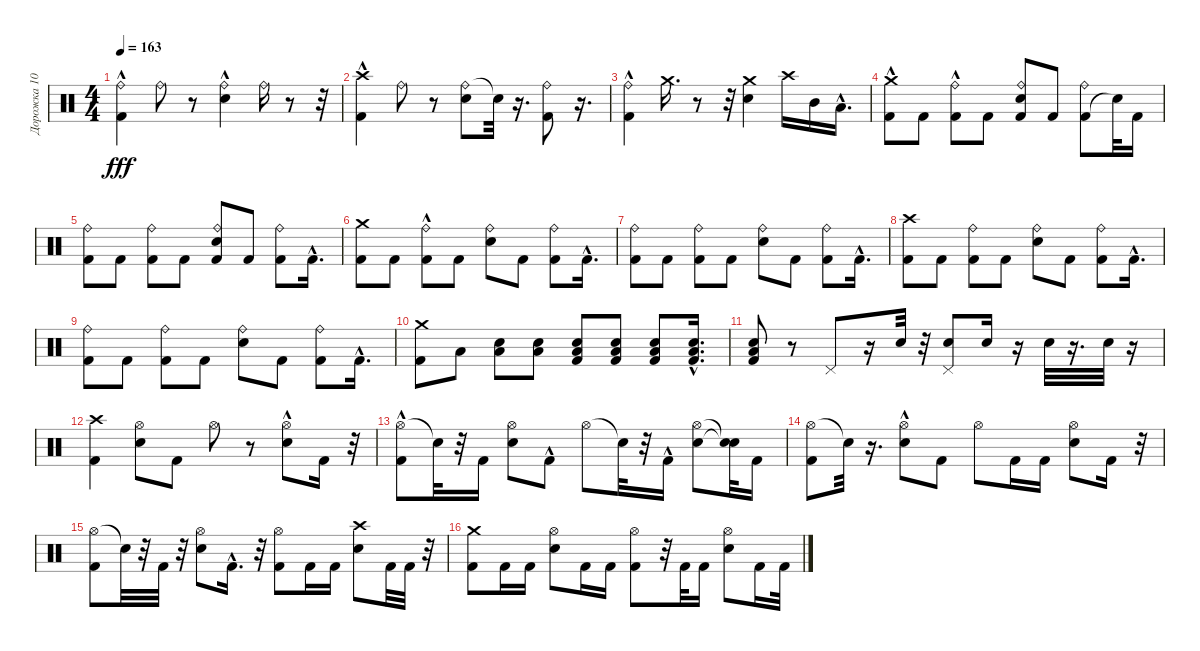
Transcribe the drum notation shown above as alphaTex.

\track ("Дорожка 10" "Дорожка 10") {instrument percussion}
\staff {score}
\articulation defaults
\ts (4 4)
\tempo 163
\clef neutral
\ks c
("Kick (hit) 2"{hac} "Ride (bell)").4{dy fff} "Ride (bell)".8 r.8 ("Ride (bell)" "Electric Snare (hit)"{hac}).4 "Ride (bell)".16 r.8 r.32 |
("Crash high (hit)"{hac} "Kick (hit) 2").4 "Ride (bell)".8 r.8 ("Ride (bell)" "Electric Snare (hit)").8 "Snare (hit)"{t}.32 r.16{d} ("Ride (bell)" "Kick (hit) 2").8 r.16{d} |
("Kick (hit) 2"{hac} "Ride (bell)").4 "Crash medium (hit)".16{d} r.8 r.32 ("Crash medium (hit)" "Electric Snare (hit)").4 "Crash high (hit)".16 "Mid Tom (hit)".16 "Low Tom (hit)"{hac}.16{d} |
("Kick (hit) 2" "Crash medium (hit)"{hac}).8 "Kick (hit) 2".8 ("Kick (hit) 2" "Ride (bell)"{hac}).8 "Kick (hit) 2".8 ("Kick (hit) 2" "Electric Snare (hit)" "Ride (bell)").8 "Kick (hit) 2".8 ("Kick (hit) 2" "Ride (bell)").8 "Snare (hit)"{t}.32 "Kick (hit) 2".16 |
("Ride (bell)" "Kick (hit) 2").8 "Kick (hit) 2".8 ("Ride (bell)" "Kick (hit) 2").8 "Kick (hit) 2".8 ("Ride (bell)" "Electric Snare (hit)" "Kick (hit) 2").8 "Kick (hit) 2".8 ("Kick (hit) 2" "Ride (bell)").8 "Kick (hit) 2"{hac}.16{d} |
("Crash medium (hit)" "Kick (hit) 2").8 "Kick (hit) 2".8 ("Kick (hit) 2" "Ride (bell)"{hac}).8 "Kick (hit) 2".8 ("Ride (bell)" "Electric Snare (hit)").8 "Kick (hit) 2".8 ("Ride (bell)" "Kick (hit) 2").8 "Kick (hit) 2"{hac}.16{d} |
("Ride (bell)" "Kick (hit) 2").8 "Kick (hit) 2".8 ("Ride (bell)" "Kick (hit) 2").8 "Kick (hit) 2".8 ("Ride (bell)" "Electric Snare (hit)").8 "Kick (hit) 2".8 ("Ride (bell)" "Kick (hit) 2").8 "Kick (hit) 2"{hac}.16{d} |
("Crash high (hit)" "Kick (hit) 2").8 "Kick (hit) 2".8 ("Ride (bell)" "Kick (hit) 2").8 "Kick (hit) 2".8 ("Ride (bell)" "Electric Snare (hit)").8 "Kick (hit) 2".8 ("Ride (bell)" "Kick (hit) 2").8 "Kick (hit) 2"{hac}.16{d} |
("Ride (bell)" "Kick (hit) 2").8 "Kick (hit) 2".8 ("Ride (bell)" "Kick (hit) 2").8 "Kick (hit) 2".8 ("Ride (bell)" "Electric Snare (hit)").8 "Kick (hit) 2".8 ("Ride (bell)" "Kick (hit) 2").8 "Kick (hit) 2"{hac}.16{d} |
("Crash medium (hit)" "Kick (hit) 2").8 "Low Floor Tom (hit)".8 ("Low Floor Tom (hit)" "Electric Snare (hit)").8 ("Electric Snare (hit)" "Low Floor Tom (hit)").8 ("Electric Snare (hit)" "Low Floor Tom (hit)" "Kick (hit) 2").8 ("Low Floor Tom (hit)" "Electric Snare (hit)" "Kick (hit) 2").8 ("Electric Snare (hit)" "Kick (hit) 2" "Low Floor Tom (hit)").8 ("Kick (hit) 2"{hac} "Low Floor Tom (hit)"{hac} "Electric Snare (hit)"{hac}).16{d} |
("Low Floor Tom (hit)" "Electric Snare (hit)" "Kick (hit) 2").8 r.8 "Pedal Hi-Hat (hit)".8 r.16 "Electric Snare (hit)".32 r.32 ("Pedal Hi-Hat (hit)" "Electric Snare (hit)").8 "Electric Snare (hit)".16 r.16 "Electric Snare (hit)".32 r.16{d} "Electric Snare (hit)".32 r.16 |
("Crash high (hit)" "Kick (hit) 2").4 ("Electric Snare (hit)" "Hi-Hat (open)").8 "Kick (hit) 2".8 "Hi-Hat (open)".8 r.8 ("Electric Snare (hit)"{hac} "Hi-Hat (open)").8 "Kick (hit) 2".16 r.32 |
("Hi-Hat (open)" "Kick (hit) 2"{hac}).8 "Snare (hit)"{t}.32 r.32 "Kick (hit) 2".16 ("Electric Snare (hit)" "Hi-Hat (open)").8 "Kick (hit) 2"{hac}.8 "Hi-Hat (open)".8 "Snare (hit)"{t}.32 r.32 "Kick (hit) 2"{hac}.16 ("Electric Snare (hit)" "Hi-Hat (open)").8 ("Snare (hit)"{t} "Snare (hit)"{t}).32 "Kick (hit) 2".16 |
("Hi-Hat (open)" "Kick (hit) 2").8 "Snare (hit)"{t}.32 r.16{d} ("Hi-Hat (open)" "Electric Snare (hit)"{hac}).8 "Kick (hit) 2".8 "Hi-Hat (open)".8 "Kick (hit) 2".16 "Kick (hit) 2".16 ("Hi-Hat (open)" "Electric Snare (hit)").8 "Kick (hit) 2".16 r.32 |
("Hi-Hat (open)" "Kick (hit) 2").8 "Snare (hit)"{t}.32 r.32 "Kick (hit) 2".32 r.32 ("Hi-Hat (open)" "Electric Snare (hit)").8 "Kick (hit) 2"{hac}.16{d} r.32 ("Hi-Hat (open)" "Kick (hit) 2").8 "Kick (hit) 2".16 "Kick (hit) 2".16 ("Crash high (hit)" "Electric Snare (hit)").8 "Kick (hit) 2".32 "Kick (hit) 2".32 r.32 |
("Kick (hit) 2" "Crash medium (hit)").8 "Kick (hit) 2".16 "Kick (hit) 2".16 ("Hi-Hat (open)" "Electric Snare (hit)").8 "Kick (hit) 2".16 "Kick (hit) 2".16 ("Hi-Hat (open)" "Kick (hit) 2").8 r.32 "Kick (hit) 2".32 "Kick (hit) 2".16 ("Hi-Hat (open)" "Electric Snare (hit)").8 "Kick (hit) 2".16 "Kick (hit) 2".32
